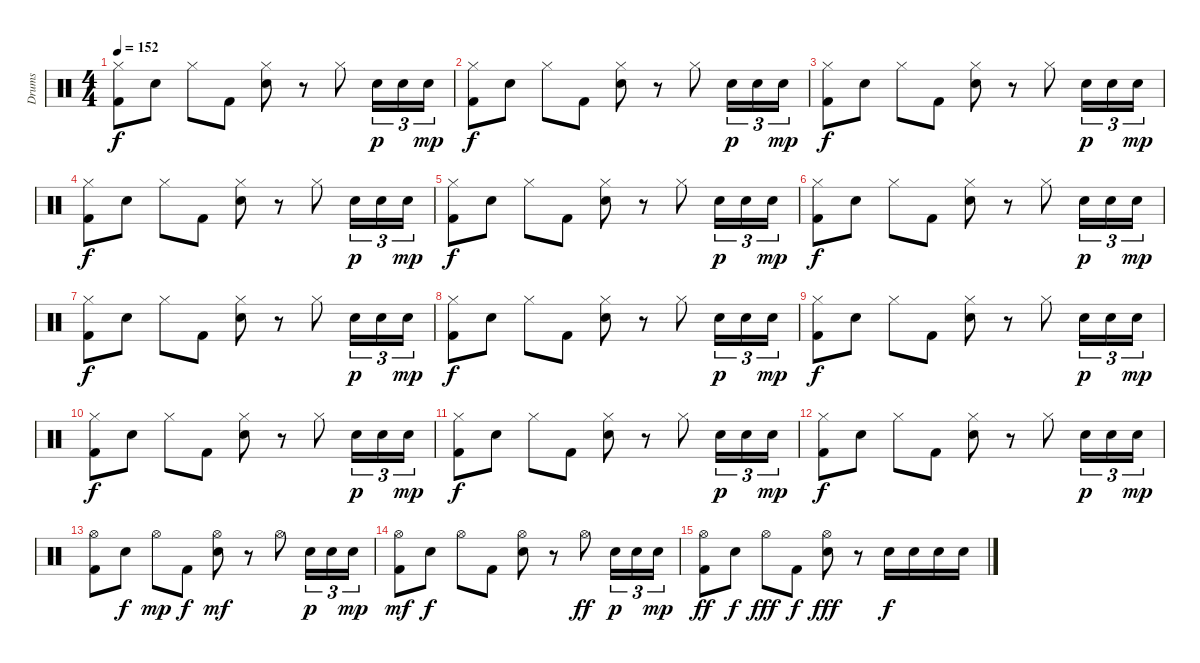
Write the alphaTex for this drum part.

\track ("Drums" "Drums") {instrument percussion}
\staff {score}
\articulation defaults
\ts (4 4)
\tempo 152
\clef neutral
\ks c
("Hi-Hat (closed)" "Kick (hit) 2").8{dy f} "Snare (hit) 2".8 "Hi-Hat (closed)".8 "Kick (hit) 2".8 ("Hi-Hat (closed)" "Snare (hit) 2").8 r.8 "Hi-Hat (closed)".8 "Snare (hit) 2".16{tu (3 2) dy p} "Snare (hit) 2".16{tu (3 2)} "Snare (hit) 2".16{tu (3 2) dy mp} |
("Hi-Hat (closed)" "Kick (hit) 2").8{dy f} "Snare (hit) 2".8 "Hi-Hat (closed)".8 "Kick (hit) 2".8 ("Hi-Hat (closed)" "Snare (hit) 2").8 r.8 "Hi-Hat (closed)".8 "Snare (hit) 2".16{tu (3 2) dy p} "Snare (hit) 2".16{tu (3 2)} "Snare (hit) 2".16{tu (3 2) dy mp} |
("Hi-Hat (closed)" "Kick (hit) 2").8{dy f} "Snare (hit) 2".8 "Hi-Hat (closed)".8 "Kick (hit) 2".8 ("Hi-Hat (closed)" "Snare (hit) 2").8 r.8 "Hi-Hat (closed)".8 "Snare (hit) 2".16{tu (3 2) dy p} "Snare (hit) 2".16{tu (3 2)} "Snare (hit) 2".16{tu (3 2) dy mp} |
("Hi-Hat (closed)" "Kick (hit) 2").8{dy f volume 11} "Snare (hit) 2".8 "Hi-Hat (closed)".8 "Kick (hit) 2".8 ("Hi-Hat (closed)" "Snare (hit) 2").8 r.8 "Hi-Hat (closed)".8 "Snare (hit) 2".16{tu (3 2) dy p} "Snare (hit) 2".16{tu (3 2)} "Snare (hit) 2".16{tu (3 2) dy mp} |
("Hi-Hat (closed)" "Kick (hit) 2").8{dy f} "Snare (hit) 2".8 "Hi-Hat (closed)".8 "Kick (hit) 2".8 ("Hi-Hat (closed)" "Snare (hit) 2").8 r.8 "Hi-Hat (closed)".8 "Snare (hit) 2".16{tu (3 2) dy p} "Snare (hit) 2".16{tu (3 2)} "Snare (hit) 2".16{tu (3 2) dy mp} |
("Hi-Hat (closed)" "Kick (hit) 2").8{dy f} "Snare (hit) 2".8 "Hi-Hat (closed)".8 "Kick (hit) 2".8 ("Hi-Hat (closed)" "Snare (hit) 2").8 r.8 "Hi-Hat (closed)".8 "Snare (hit) 2".16{tu (3 2) dy p} "Snare (hit) 2".16{tu (3 2)} "Snare (hit) 2".16{tu (3 2) dy mp} |
("Hi-Hat (closed)" "Kick (hit) 2").8{dy f} "Snare (hit) 2".8 "Hi-Hat (closed)".8 "Kick (hit) 2".8 ("Hi-Hat (closed)" "Snare (hit) 2").8 r.8 "Hi-Hat (closed)".8 "Snare (hit) 2".16{tu (3 2) dy p} "Snare (hit) 2".16{tu (3 2)} "Snare (hit) 2".16{tu (3 2) dy mp} |
("Hi-Hat (closed)" "Kick (hit) 2").8{dy f volume 13} "Snare (hit) 2".8 "Hi-Hat (closed)".8 "Kick (hit) 2".8 ("Hi-Hat (closed)" "Snare (hit) 2").8 r.8 "Hi-Hat (closed)".8 "Snare (hit) 2".16{tu (3 2) dy p} "Snare (hit) 2".16{tu (3 2)} "Snare (hit) 2".16{tu (3 2) dy mp} |
("Hi-Hat (closed)" "Kick (hit) 2").8{dy f} "Snare (hit) 2".8 "Hi-Hat (closed)".8 "Kick (hit) 2".8 ("Hi-Hat (closed)" "Snare (hit) 2").8 r.8 "Hi-Hat (closed)".8 "Snare (hit) 2".16{tu (3 2) dy p} "Snare (hit) 2".16{tu (3 2)} "Snare (hit) 2".16{tu (3 2) dy mp} |
("Hi-Hat (closed)" "Kick (hit) 2").8{dy f} "Snare (hit) 2".8 "Hi-Hat (closed)".8 "Kick (hit) 2".8 ("Hi-Hat (closed)" "Snare (hit) 2").8 r.8 "Hi-Hat (closed)".8 "Snare (hit) 2".16{tu (3 2) dy p} "Snare (hit) 2".16{tu (3 2)} "Snare (hit) 2".16{tu (3 2) dy mp} |
("Hi-Hat (closed)" "Kick (hit) 2").8{dy f} "Snare (hit) 2".8 "Hi-Hat (closed)".8 "Kick (hit) 2".8 ("Hi-Hat (closed)" "Snare (hit) 2").8 r.8 "Hi-Hat (closed)".8 "Snare (hit) 2".16{tu (3 2) dy p} "Snare (hit) 2".16{tu (3 2)} "Snare (hit) 2".16{tu (3 2) dy mp} |
("Hi-Hat (closed)" "Kick (hit) 2").8{dy f} "Snare (hit) 2".8 "Hi-Hat (closed)".8 "Kick (hit) 2".8 ("Hi-Hat (closed)" "Snare (hit) 2").8 r.8 "Hi-Hat (closed)".8 "Snare (hit) 2".16{tu (3 2) dy p} "Snare (hit) 2".16{tu (3 2)} "Snare (hit) 2".16{tu (3 2) dy mp} |
("Hi-Hat (open)" "Kick (hit) 2").8 "Snare (hit) 2".8{dy f} "Hi-Hat (open)".8{dy mp} "Kick (hit) 2".8{dy f} ("Hi-Hat (open)" "Snare (hit) 2").8{dy mf} r.8 "Hi-Hat (open)".8 "Snare (hit) 2".16{tu (3 2) dy p} "Snare (hit) 2".16{tu (3 2)} "Snare (hit) 2".16{tu (3 2) dy mp} |
("Hi-Hat (open)" "Kick (hit) 2").8{dy mf} "Snare (hit) 2".8{dy f} "Hi-Hat (open)".8 "Kick (hit) 2".8 ("Hi-Hat (open)" "Snare (hit) 2").8 r.8 "Hi-Hat (open)".8{dy ff} "Snare (hit) 2".16{tu (3 2) dy p} "Snare (hit) 2".16{tu (3 2)} "Snare (hit) 2".16{tu (3 2) dy mp} |
("Hi-Hat (open)" "Kick (hit) 2").8{dy ff} "Snare (hit) 2".8{dy f} "Hi-Hat (open)".8{dy fff} "Kick (hit) 2".8{dy f} ("Hi-Hat (open)" "Snare (hit) 2").8{dy fff} r.8 "Snare (hit) 2".16{dy f} "Snare (hit) 2".16 "Snare (hit) 2".16 "Snare (hit) 2".16
